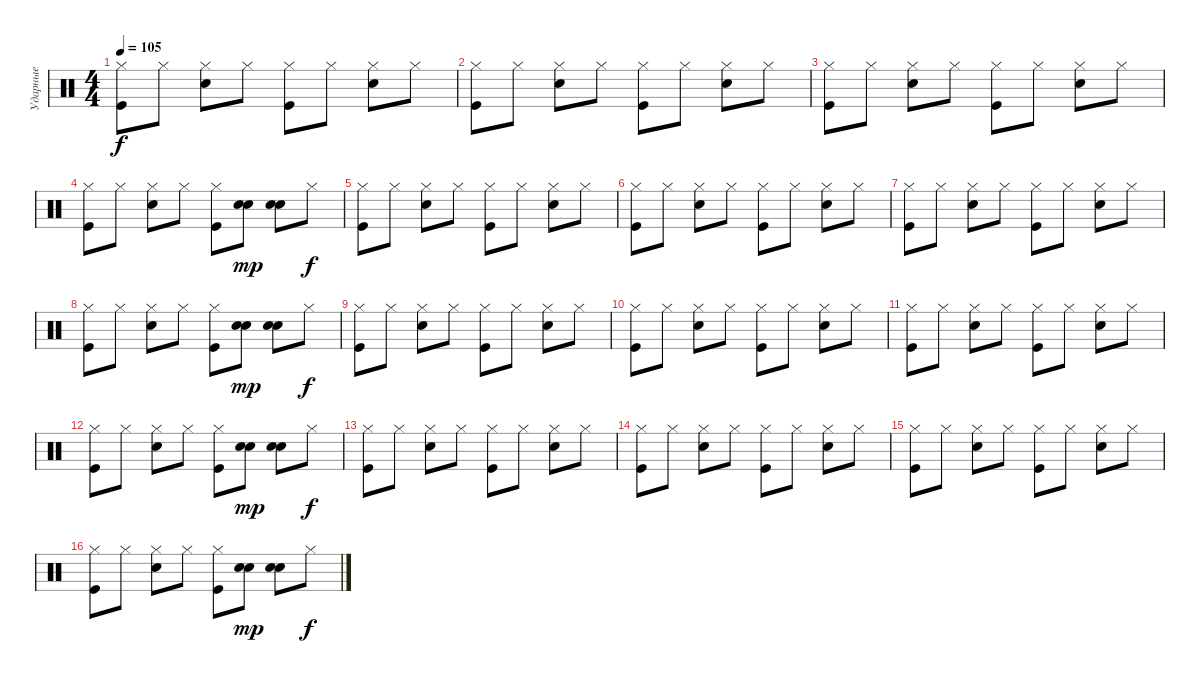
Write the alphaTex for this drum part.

\track ("Ударные" "Ударные") {instrument percussion}
\staff {score}
\articulation defaults
\ts (4 4)
\tempo 105
\clef neutral
\ks c
("Hi-Hat (closed)" "Kick (hit)").8{dy f} "Hi-Hat (closed)".8 ("Hi-Hat (closed)" "Snare (hit) 2").8 "Hi-Hat (closed)".8 ("Hi-Hat (closed)" "Kick (hit)").8 "Hi-Hat (closed)".8 ("Hi-Hat (closed)" "Snare (hit) 2").8 "Hi-Hat (closed)".8 |
("Hi-Hat (closed)" "Kick (hit)").8 "Hi-Hat (closed)".8 ("Hi-Hat (closed)" "Snare (hit) 2").8 "Hi-Hat (closed)".8 ("Hi-Hat (closed)" "Kick (hit)").8 "Hi-Hat (closed)".8 ("Hi-Hat (closed)" "Snare (hit) 2").8 "Hi-Hat (closed)".8 |
("Hi-Hat (closed)" "Kick (hit)").8 "Hi-Hat (closed)".8 ("Hi-Hat (closed)" "Snare (hit) 2").8 "Hi-Hat (closed)".8 ("Hi-Hat (closed)" "Kick (hit)").8 "Hi-Hat (closed)".8 ("Hi-Hat (closed)" "Snare (hit) 2").8 "Hi-Hat (closed)".8 |
("Hi-Hat (closed)" "Kick (hit)").8 "Hi-Hat (closed)".8 ("Hi-Hat (closed)" "Snare (hit) 2").8 "Hi-Hat (closed)".8 ("Hi-Hat (closed)" "Kick (hit)").8 ("Hand Clap (hit)" "Snare (hit) 2").8{dy mp} ("Hand Clap (hit)" "Snare (hit) 2").8 "Hi-Hat (closed)".8{dy f} |
("Hi-Hat (closed)" "Kick (hit)").8 "Hi-Hat (closed)".8 ("Hi-Hat (closed)" "Snare (hit) 2").8 "Hi-Hat (closed)".8 ("Hi-Hat (closed)" "Kick (hit)").8 "Hi-Hat (closed)".8 ("Hi-Hat (closed)" "Snare (hit) 2").8 "Hi-Hat (closed)".8 |
("Hi-Hat (closed)" "Kick (hit)").8 "Hi-Hat (closed)".8 ("Hi-Hat (closed)" "Snare (hit) 2").8 "Hi-Hat (closed)".8 ("Hi-Hat (closed)" "Kick (hit)").8 "Hi-Hat (closed)".8 ("Hi-Hat (closed)" "Snare (hit) 2").8 "Hi-Hat (closed)".8 |
("Hi-Hat (closed)" "Kick (hit)").8 "Hi-Hat (closed)".8 ("Hi-Hat (closed)" "Snare (hit) 2").8 "Hi-Hat (closed)".8 ("Hi-Hat (closed)" "Kick (hit)").8 "Hi-Hat (closed)".8 ("Hi-Hat (closed)" "Snare (hit) 2").8 "Hi-Hat (closed)".8 |
("Hi-Hat (closed)" "Kick (hit)").8 "Hi-Hat (closed)".8 ("Hi-Hat (closed)" "Snare (hit) 2").8 "Hi-Hat (closed)".8 ("Hi-Hat (closed)" "Kick (hit)").8 ("Hand Clap (hit)" "Snare (hit) 2").8{dy mp} ("Hand Clap (hit)" "Snare (hit) 2").8 "Hi-Hat (closed)".8{dy f} |
("Hi-Hat (closed)" "Kick (hit)").8 "Hi-Hat (closed)".8 ("Hi-Hat (closed)" "Snare (hit) 2").8 "Hi-Hat (closed)".8 ("Hi-Hat (closed)" "Kick (hit)").8 "Hi-Hat (closed)".8 ("Hi-Hat (closed)" "Snare (hit) 2").8 "Hi-Hat (closed)".8 |
("Hi-Hat (closed)" "Kick (hit)").8 "Hi-Hat (closed)".8 ("Hi-Hat (closed)" "Snare (hit) 2").8 "Hi-Hat (closed)".8 ("Hi-Hat (closed)" "Kick (hit)").8 "Hi-Hat (closed)".8 ("Hi-Hat (closed)" "Snare (hit) 2").8 "Hi-Hat (closed)".8 |
("Hi-Hat (closed)" "Kick (hit)").8 "Hi-Hat (closed)".8 ("Hi-Hat (closed)" "Snare (hit) 2").8 "Hi-Hat (closed)".8 ("Hi-Hat (closed)" "Kick (hit)").8 "Hi-Hat (closed)".8 ("Hi-Hat (closed)" "Snare (hit) 2").8 "Hi-Hat (closed)".8 |
("Hi-Hat (closed)" "Kick (hit)").8 "Hi-Hat (closed)".8 ("Hi-Hat (closed)" "Snare (hit) 2").8 "Hi-Hat (closed)".8 ("Hi-Hat (closed)" "Kick (hit)").8 ("Hand Clap (hit)" "Snare (hit) 2").8{dy mp} ("Hand Clap (hit)" "Snare (hit) 2").8 "Hi-Hat (closed)".8{dy f} |
("Hi-Hat (closed)" "Kick (hit)").8 "Hi-Hat (closed)".8 ("Hi-Hat (closed)" "Snare (hit) 2").8 "Hi-Hat (closed)".8 ("Hi-Hat (closed)" "Kick (hit)").8 "Hi-Hat (closed)".8 ("Hi-Hat (closed)" "Snare (hit) 2").8 "Hi-Hat (closed)".8 |
("Hi-Hat (closed)" "Kick (hit)").8 "Hi-Hat (closed)".8 ("Hi-Hat (closed)" "Snare (hit) 2").8 "Hi-Hat (closed)".8 ("Hi-Hat (closed)" "Kick (hit)").8 "Hi-Hat (closed)".8 ("Hi-Hat (closed)" "Snare (hit) 2").8 "Hi-Hat (closed)".8 |
("Hi-Hat (closed)" "Kick (hit)").8 "Hi-Hat (closed)".8 ("Hi-Hat (closed)" "Snare (hit) 2").8 "Hi-Hat (closed)".8 ("Hi-Hat (closed)" "Kick (hit)").8 "Hi-Hat (closed)".8 ("Hi-Hat (closed)" "Snare (hit) 2").8 "Hi-Hat (closed)".8 |
("Hi-Hat (closed)" "Kick (hit)").8 "Hi-Hat (closed)".8 ("Hi-Hat (closed)" "Snare (hit) 2").8 "Hi-Hat (closed)".8 ("Hi-Hat (closed)" "Kick (hit)").8 ("Hand Clap (hit)" "Snare (hit) 2").8{dy mp} ("Hand Clap (hit)" "Snare (hit) 2").8 "Hi-Hat (closed)".8{dy f}
